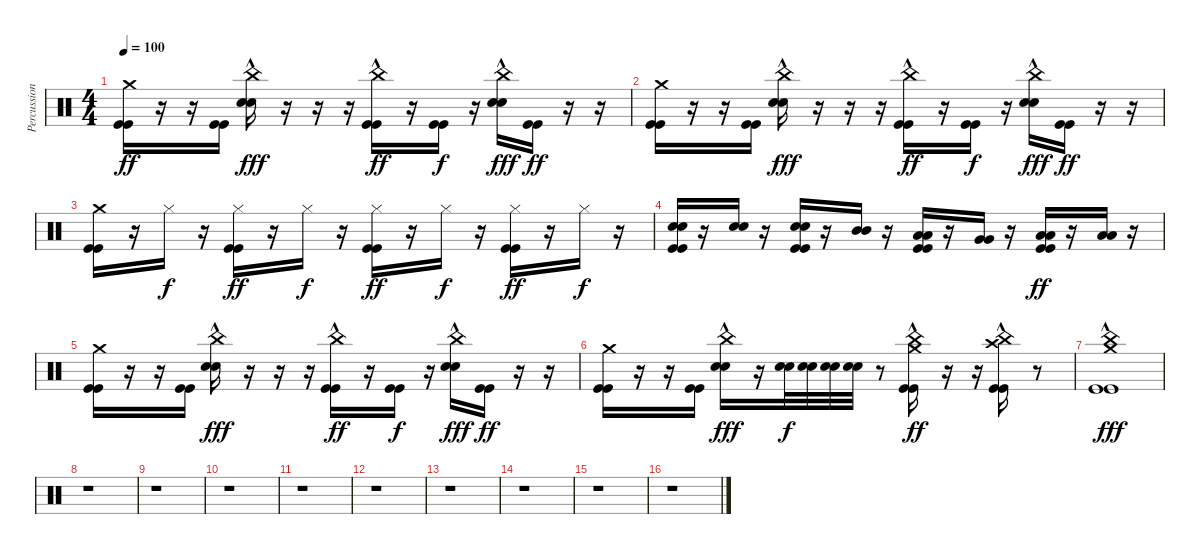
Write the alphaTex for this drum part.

\track ("Percussions" "Percussion") {instrument percussion}
\staff {score}
\articulation defaults
\ts (4 4)
\tempo 100
\clef neutral
\ks c
("Crash medium (hit)" "Kick (hit)" "Kick (hit)").16{dy ff} r.16 r.16 ("Kick (hit)" "Kick (hit)").16 ("China (hit)"{hac} "Electric Snare (hit)" "Electric Snare (hit)").16{dy fff} r.16 r.16 r.16 ("China (hit)"{hac} "Kick (hit)" "Kick (hit)").16{dy ff} r.16 ("Kick (hit)" "Kick (hit)").16{dy f} r.16 ("China (hit)"{hac} "Electric Snare (hit)" "Electric Snare (hit)").16{dy fff} ("Kick (hit)" "Kick (hit)").16{dy ff} r.16 r.16 |
("Crash medium (hit)" "Kick (hit)" "Kick (hit)").16 r.16 r.16 ("Kick (hit)" "Kick (hit)").16 ("China (hit)"{hac} "Electric Snare (hit)" "Electric Snare (hit)").16{dy fff} r.16 r.16 r.16 ("China (hit)"{hac} "Kick (hit)" "Kick (hit)").16{dy ff} r.16 ("Kick (hit)" "Kick (hit)").16{dy f} r.16 ("China (hit)"{hac} "Electric Snare (hit)" "Electric Snare (hit)").16{dy fff} ("Kick (hit)" "Kick (hit)").16{dy ff} r.16 r.16 |
("Crash medium (hit)" "Kick (hit)" "Kick (hit)").16 r.16 "Hi-Hat (closed)".16{dy f} r.16 ("Hi-Hat (closed)" "Kick (hit)" "Kick (hit)").16{dy ff} r.16 "Hi-Hat (closed)".16{dy f} r.16 ("Hi-Hat (closed)" "Kick (hit)" "Kick (hit)").16{dy ff} r.16 "Hi-Hat (closed)".16{dy f} r.16 ("Hi-Hat (closed)" "Kick (hit)" "Kick (hit)").16{dy ff} r.16 "Hi-Hat (closed)".16{dy f} r.16 |
("Electric Snare (hit)" "Electric Snare (hit)" "Kick (hit)" "Kick (hit)").16 r.16 ("Electric Snare (hit)" "Electric Snare (hit)").16 r.16 ("Electric Snare (hit)" "Electric Snare (hit)" "Kick (hit)" "Kick (hit)").16 r.16 ("Mid Tom (hit)" "Mid Tom (hit)").16 r.16 ("Low Tom (hit)" "Low Tom (hit)" "Kick (hit)" "Kick (hit)").16 r.16 ("Very Low Tom (hit)" "Very Low Tom (hit)").16 r.16 ("Low Floor Tom (hit)" "Low Floor Tom (hit)" "Kick (hit)" "Kick (hit)").16{dy ff} r.16 ("Low Floor Tom (hit)" "Low Floor Tom (hit)").16 r.16 |
("Crash medium (hit)" "Kick (hit)" "Kick (hit)").16 r.16 r.16 ("Kick (hit)" "Kick (hit)").16 ("China (hit)"{hac} "Electric Snare (hit)" "Electric Snare (hit)").16{dy fff} r.16 r.16 r.16 ("China (hit)"{hac} "Kick (hit)" "Kick (hit)").16{dy ff} r.16 ("Kick (hit)" "Kick (hit)").16{dy f} r.16 ("China (hit)"{hac} "Electric Snare (hit)" "Electric Snare (hit)").16{dy fff} ("Kick (hit)" "Kick (hit)").16{dy ff} r.16 r.16 |
("Crash medium (hit)" "Kick (hit)" "Kick (hit)").16 r.16 r.16 ("Kick (hit)" "Kick (hit)").16 ("China (hit)"{hac} "Electric Snare (hit)" "Electric Snare (hit)").16{dy fff} r.16 ("Electric Snare (hit)" "Electric Snare (hit)").32{dy f} ("Electric Snare (hit)" "Electric Snare (hit)").32 ("Electric Snare (hit)" "Electric Snare (hit)").32 ("Electric Snare (hit)" "Electric Snare (hit)").32 r.8 ("Crash medium (hit)" "China (hit)"{hac} "Kick (hit)" "Kick (hit)").16{dy ff} r.16 r.16 ("Crash high (hit)" "China (hit)"{hac} "Kick (hit)" "Kick (hit)").16 r.8 |
("Crash medium (hit)" "China (hit)"{hac} "Kick (hit)" "Kick (hit)").1{dy fff} |
r.1 |
r.1 |
r.1 |
r.1 |
r.1 |
r.1 |
r.1 |
r.1 |
r.1
